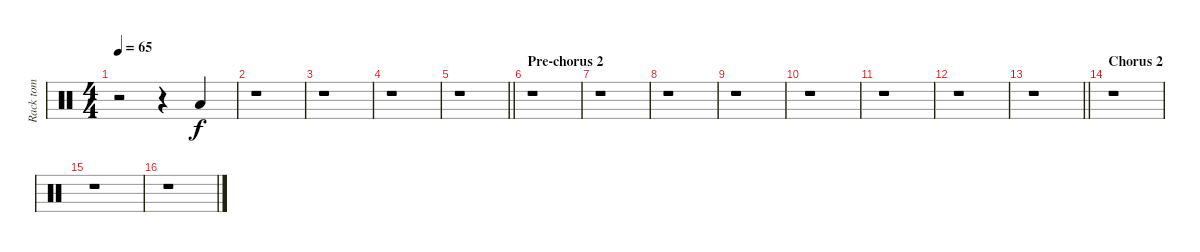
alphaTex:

\track ("Rack tom" "Rack tom") {instrument percussion}
\staff {score}
\articulation defaults
\ts (4 4)
\tempo 65
\clef neutral
\ks c
r.2{dy ff} r.4 "Low Tom (hit)".4{dy f} |
r.1 |
r.1 |
r.1 |
\barLineRight lightlight
r.1 |
\section ("" "Pre-chorus 2")
r.1 |
r.1 |
r.1 |
r.1 |
r.1 |
r.1 |
r.1 |
\barLineRight lightlight
r.1 |
\section ("" "Chorus 2")
r.1 |
r.1 |
r.1
